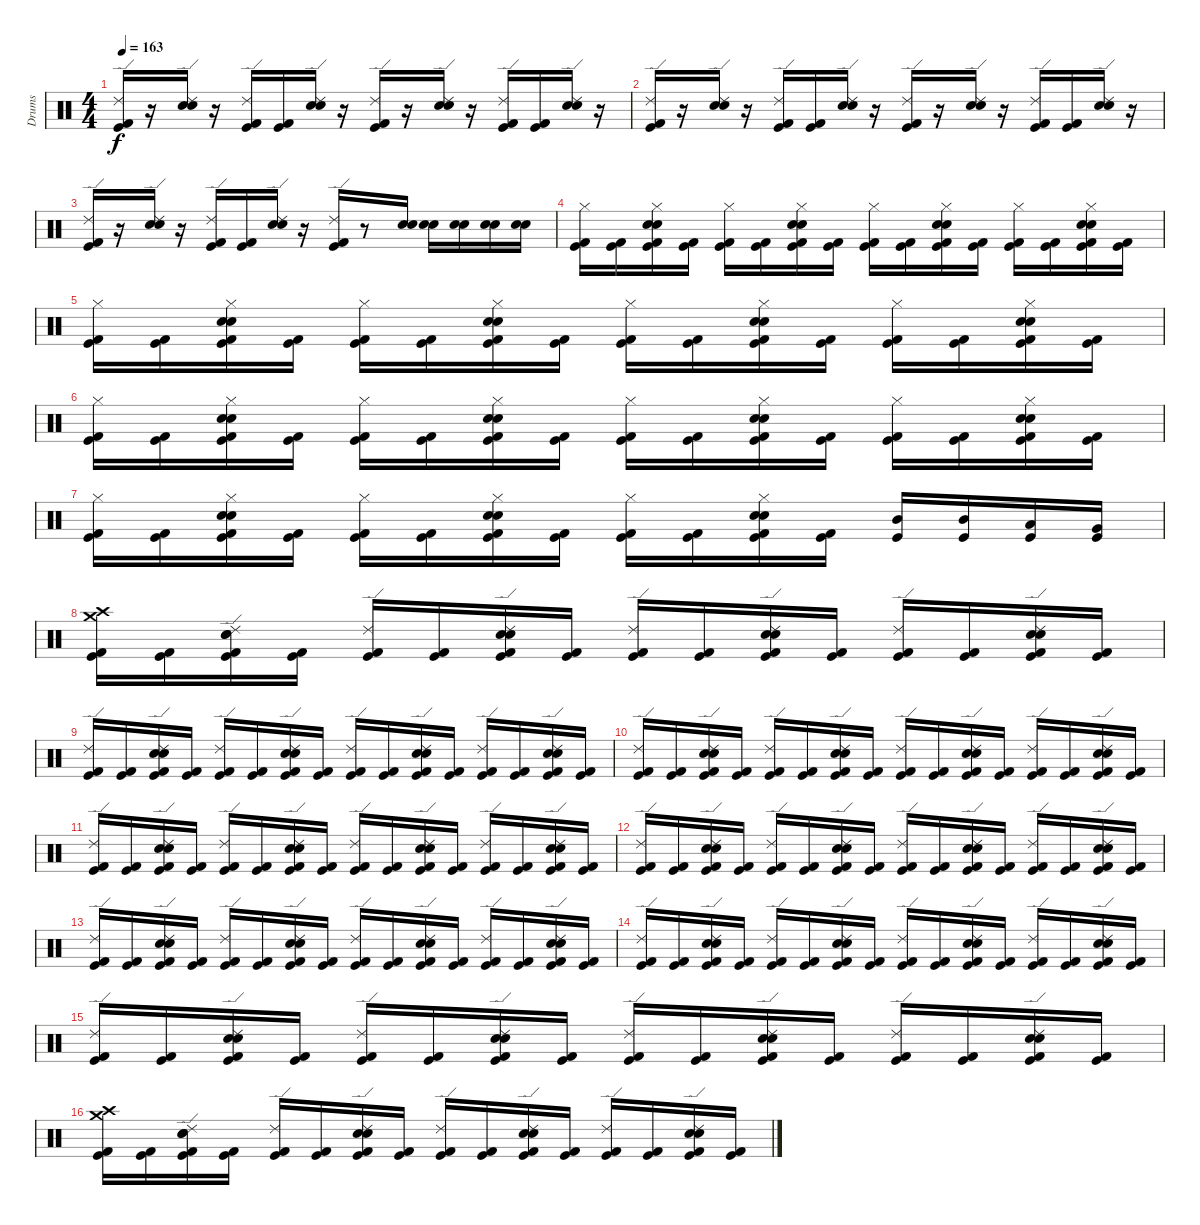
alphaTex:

\track ("Drums" "Drums") {instrument percussion}
\staff {score}
\articulation defaults
\ts (4 4)
\tempo 163
\clef neutral
\ks c
("Ride (edge) 2" "Kick (hit) 2" "Kick (hit)").16{dy f} r.16 ("Ride (edge) 2" "Electric Snare (hit)" "Snare (hit) 2").16 r.16 ("Ride (edge) 2" "Kick (hit)" "Kick (hit) 2").16 ("Kick (hit)" "Kick (hit) 2").16 ("Ride (edge) 2" "Electric Snare (hit)" "Snare (hit) 2").16 r.16 ("Ride (edge) 2" "Kick (hit)" "Kick (hit) 2").16 r.16 ("Ride (edge) 2" "Electric Snare (hit)" "Snare (hit) 2").16 r.16 ("Ride (edge) 2" "Kick (hit) 2" "Kick (hit)").16 ("Kick (hit) 2" "Kick (hit)").16 ("Ride (edge) 2" "Electric Snare (hit)" "Snare (hit) 2").16 r.16 |
("Ride (edge) 2" "Kick (hit) 2" "Kick (hit)").16 r.16 ("Ride (edge) 2" "Electric Snare (hit)" "Snare (hit) 2").16 r.16 ("Ride (edge) 2" "Kick (hit)" "Kick (hit) 2").16 ("Kick (hit)" "Kick (hit) 2").16 ("Ride (edge) 2" "Electric Snare (hit)" "Snare (hit) 2").16 r.16 ("Ride (edge) 2" "Kick (hit)" "Kick (hit) 2").16 r.16 ("Ride (edge) 2" "Electric Snare (hit)" "Snare (hit) 2").16 r.16 ("Ride (edge) 2" "Kick (hit) 2" "Kick (hit)").16 ("Kick (hit) 2" "Kick (hit)").16 ("Ride (edge) 2" "Electric Snare (hit)" "Snare (hit) 2").16 r.16 |
("Ride (edge) 2" "Kick (hit) 2" "Kick (hit)").16 r.16 ("Ride (edge) 2" "Electric Snare (hit)" "Snare (hit) 2").16 r.16 ("Ride (edge) 2" "Kick (hit)" "Kick (hit) 2").16 ("Kick (hit)" "Kick (hit) 2").16 ("Ride (edge) 2" "Electric Snare (hit)" "Snare (hit) 2").16 r.16 ("Ride (edge) 2" "Kick (hit)" "Kick (hit) 2").16 r.8 ("Electric Snare (hit)" "Snare (hit) 2").16 ("Snare (hit) 2" "Electric Snare (hit)").16 ("Electric Snare (hit)" "Snare (hit) 2").16 ("Electric Snare (hit)" "Snare (hit) 2").16 ("Electric Snare (hit)" "Snare (hit) 2").16 |
("Hi-Hat (closed)" "Kick (hit) 2" "Kick (hit)").16 ("Kick (hit) 2" "Kick (hit)").16 ("Electric Snare (hit)" "Snare (hit) 2" "Hi-Hat (closed)" "Kick (hit) 2" "Kick (hit)").16 ("Kick (hit) 2" "Kick (hit)").16 ("Hi-Hat (closed)" "Kick (hit) 2" "Kick (hit)").16 ("Kick (hit) 2" "Kick (hit)").16 ("Electric Snare (hit)" "Snare (hit) 2" "Hi-Hat (closed)" "Kick (hit) 2" "Kick (hit)").16 ("Kick (hit) 2" "Kick (hit)").16 ("Hi-Hat (closed)" "Kick (hit) 2" "Kick (hit)").16 ("Kick (hit) 2" "Kick (hit)").16 ("Electric Snare (hit)" "Snare (hit) 2" "Hi-Hat (closed)" "Kick (hit) 2" "Kick (hit)").16 ("Kick (hit) 2" "Kick (hit)").16 ("Hi-Hat (closed)" "Kick (hit) 2" "Kick (hit)").16 ("Kick (hit) 2" "Kick (hit)").16 ("Electric Snare (hit)" "Snare (hit) 2" "Hi-Hat (closed)" "Kick (hit) 2" "Kick (hit)").16 ("Kick (hit) 2" "Kick (hit)").16 |
("Hi-Hat (closed)" "Kick (hit) 2" "Kick (hit)").16 ("Kick (hit) 2" "Kick (hit)").16 ("Electric Snare (hit)" "Snare (hit) 2" "Hi-Hat (closed)" "Kick (hit) 2" "Kick (hit)").16 ("Kick (hit) 2" "Kick (hit)").16 ("Hi-Hat (closed)" "Kick (hit) 2" "Kick (hit)").16 ("Kick (hit) 2" "Kick (hit)").16 ("Electric Snare (hit)" "Snare (hit) 2" "Hi-Hat (closed)" "Kick (hit) 2" "Kick (hit)").16 ("Kick (hit) 2" "Kick (hit)").16 ("Hi-Hat (closed)" "Kick (hit) 2" "Kick (hit)").16 ("Kick (hit) 2" "Kick (hit)").16 ("Electric Snare (hit)" "Snare (hit) 2" "Hi-Hat (closed)" "Kick (hit) 2" "Kick (hit)").16 ("Kick (hit) 2" "Kick (hit)").16 ("Hi-Hat (closed)" "Kick (hit) 2" "Kick (hit)").16 ("Kick (hit) 2" "Kick (hit)").16 ("Electric Snare (hit)" "Snare (hit) 2" "Hi-Hat (closed)" "Kick (hit) 2" "Kick (hit)").16 ("Kick (hit) 2" "Kick (hit)").16 |
("Hi-Hat (closed)" "Kick (hit) 2" "Kick (hit)").16 ("Kick (hit) 2" "Kick (hit)").16 ("Electric Snare (hit)" "Snare (hit) 2" "Hi-Hat (closed)" "Kick (hit) 2" "Kick (hit)").16 ("Kick (hit) 2" "Kick (hit)").16 ("Hi-Hat (closed)" "Kick (hit) 2" "Kick (hit)").16 ("Kick (hit) 2" "Kick (hit)").16 ("Electric Snare (hit)" "Snare (hit) 2" "Hi-Hat (closed)" "Kick (hit) 2" "Kick (hit)").16 ("Kick (hit) 2" "Kick (hit)").16 ("Hi-Hat (closed)" "Kick (hit) 2" "Kick (hit)").16 ("Kick (hit) 2" "Kick (hit)").16 ("Electric Snare (hit)" "Snare (hit) 2" "Hi-Hat (closed)" "Kick (hit) 2" "Kick (hit)").16 ("Kick (hit) 2" "Kick (hit)").16 ("Hi-Hat (closed)" "Kick (hit) 2" "Kick (hit)").16 ("Kick (hit) 2" "Kick (hit)").16 ("Electric Snare (hit)" "Snare (hit) 2" "Hi-Hat (closed)" "Kick (hit) 2" "Kick (hit)").16 ("Kick (hit) 2" "Kick (hit)").16 |
("Hi-Hat (closed)" "Kick (hit) 2" "Kick (hit)").16 ("Kick (hit) 2" "Kick (hit)").16 ("Electric Snare (hit)" "Snare (hit) 2" "Hi-Hat (closed)" "Kick (hit) 2" "Kick (hit)").16 ("Kick (hit) 2" "Kick (hit)").16 ("Hi-Hat (closed)" "Kick (hit) 2" "Kick (hit)").16 ("Kick (hit) 2" "Kick (hit)").16 ("Electric Snare (hit)" "Snare (hit) 2" "Hi-Hat (closed)" "Kick (hit) 2" "Kick (hit)").16 ("Kick (hit) 2" "Kick (hit)").16 ("Hi-Hat (closed)" "Kick (hit) 2" "Kick (hit)").16 ("Kick (hit) 2" "Kick (hit)").16 ("Electric Snare (hit)" "Snare (hit) 2" "Hi-Hat (closed)" "Kick (hit) 2" "Kick (hit)").16 ("Kick (hit) 2" "Kick (hit)").16 ("Mid Tom (hit)" "Kick (hit)").16 ("Mid Tom (hit)" "Kick (hit)").16 ("Low Tom (hit)" "Kick (hit)").16 ("Very Low Tom (hit)" "Kick (hit)").16 |
("Crash high (hit)" "Crash medium (hit)" "Kick (hit) 2" "Kick (hit)").16 ("Kick (hit) 2" "Kick (hit)").16 ("Ride (edge) 2" "Electric Snare (hit)" "Snare (hit) 2" "Kick (hit) 2" "Kick (hit)").16 ("Kick (hit) 2" "Kick (hit)").16 ("Ride (edge) 2" "Kick (hit) 2" "Kick (hit)").16 ("Kick (hit) 2" "Kick (hit)").16 ("Ride (edge) 2" "Electric Snare (hit)" "Snare (hit) 2" "Kick (hit) 2" "Kick (hit)").16 ("Kick (hit) 2" "Kick (hit)").16 ("Ride (edge) 2" "Kick (hit) 2" "Kick (hit)").16 ("Kick (hit) 2" "Kick (hit)").16 ("Ride (edge) 2" "Electric Snare (hit)" "Snare (hit) 2" "Kick (hit) 2" "Kick (hit)").16 ("Kick (hit) 2" "Kick (hit)").16 ("Ride (edge) 2" "Kick (hit) 2" "Kick (hit)").16 ("Kick (hit) 2" "Kick (hit)").16 ("Ride (edge) 2" "Electric Snare (hit)" "Snare (hit) 2" "Kick (hit) 2" "Kick (hit)").16 ("Kick (hit) 2" "Kick (hit)").16 |
("Ride (edge) 2" "Kick (hit) 2" "Kick (hit)").16 ("Kick (hit) 2" "Kick (hit)").16 ("Ride (edge) 2" "Electric Snare (hit)" "Snare (hit) 2" "Kick (hit) 2" "Kick (hit)").16 ("Kick (hit) 2" "Kick (hit)").16 ("Ride (edge) 2" "Kick (hit) 2" "Kick (hit)").16 ("Kick (hit) 2" "Kick (hit)").16 ("Ride (edge) 2" "Electric Snare (hit)" "Snare (hit) 2" "Kick (hit) 2" "Kick (hit)").16 ("Kick (hit) 2" "Kick (hit)").16 ("Ride (edge) 2" "Kick (hit) 2" "Kick (hit)").16 ("Kick (hit) 2" "Kick (hit)").16 ("Ride (edge) 2" "Electric Snare (hit)" "Snare (hit) 2" "Kick (hit) 2" "Kick (hit)").16 ("Kick (hit) 2" "Kick (hit)").16 ("Ride (edge) 2" "Kick (hit) 2" "Kick (hit)").16 ("Kick (hit) 2" "Kick (hit)").16 ("Ride (edge) 2" "Electric Snare (hit)" "Snare (hit) 2" "Kick (hit) 2" "Kick (hit)").16 ("Kick (hit) 2" "Kick (hit)").16 |
("Ride (edge) 2" "Kick (hit) 2" "Kick (hit)").16 ("Kick (hit) 2" "Kick (hit)").16 ("Ride (edge) 2" "Electric Snare (hit)" "Snare (hit) 2" "Kick (hit) 2" "Kick (hit)").16 ("Kick (hit) 2" "Kick (hit)").16 ("Ride (edge) 2" "Kick (hit) 2" "Kick (hit)").16 ("Kick (hit) 2" "Kick (hit)").16 ("Ride (edge) 2" "Electric Snare (hit)" "Snare (hit) 2" "Kick (hit) 2" "Kick (hit)").16 ("Kick (hit) 2" "Kick (hit)").16 ("Ride (edge) 2" "Kick (hit) 2" "Kick (hit)").16 ("Kick (hit) 2" "Kick (hit)").16 ("Ride (edge) 2" "Electric Snare (hit)" "Snare (hit) 2" "Kick (hit) 2" "Kick (hit)").16 ("Kick (hit) 2" "Kick (hit)").16 ("Ride (edge) 2" "Kick (hit) 2" "Kick (hit)").16 ("Kick (hit) 2" "Kick (hit)").16 ("Ride (edge) 2" "Electric Snare (hit)" "Snare (hit) 2" "Kick (hit) 2" "Kick (hit)").16 ("Kick (hit) 2" "Kick (hit)").16 |
("Ride (edge) 2" "Kick (hit) 2" "Kick (hit)").16 ("Kick (hit) 2" "Kick (hit)").16 ("Ride (edge) 2" "Electric Snare (hit)" "Snare (hit) 2" "Kick (hit) 2" "Kick (hit)").16 ("Kick (hit) 2" "Kick (hit)").16 ("Ride (edge) 2" "Kick (hit) 2" "Kick (hit)").16 ("Kick (hit) 2" "Kick (hit)").16 ("Ride (edge) 2" "Electric Snare (hit)" "Snare (hit) 2" "Kick (hit) 2" "Kick (hit)").16 ("Kick (hit) 2" "Kick (hit)").16 ("Ride (edge) 2" "Kick (hit) 2" "Kick (hit)").16 ("Kick (hit) 2" "Kick (hit)").16 ("Ride (edge) 2" "Electric Snare (hit)" "Snare (hit) 2" "Kick (hit) 2" "Kick (hit)").16 ("Kick (hit) 2" "Kick (hit)").16 ("Ride (edge) 2" "Kick (hit) 2" "Kick (hit)").16 ("Kick (hit) 2" "Kick (hit)").16 ("Ride (edge) 2" "Electric Snare (hit)" "Snare (hit) 2" "Kick (hit) 2" "Kick (hit)").16 ("Kick (hit) 2" "Kick (hit)").16 |
("Ride (edge) 2" "Kick (hit) 2" "Kick (hit)").16 ("Kick (hit) 2" "Kick (hit)").16 ("Ride (edge) 2" "Electric Snare (hit)" "Snare (hit) 2" "Kick (hit) 2" "Kick (hit)").16 ("Kick (hit) 2" "Kick (hit)").16 ("Ride (edge) 2" "Kick (hit) 2" "Kick (hit)").16 ("Kick (hit) 2" "Kick (hit)").16 ("Ride (edge) 2" "Electric Snare (hit)" "Snare (hit) 2" "Kick (hit) 2" "Kick (hit)").16 ("Kick (hit) 2" "Kick (hit)").16 ("Ride (edge) 2" "Kick (hit) 2" "Kick (hit)").16 ("Kick (hit) 2" "Kick (hit)").16 ("Ride (edge) 2" "Electric Snare (hit)" "Snare (hit) 2" "Kick (hit) 2" "Kick (hit)").16 ("Kick (hit) 2" "Kick (hit)").16 ("Ride (edge) 2" "Kick (hit) 2" "Kick (hit)").16 ("Kick (hit) 2" "Kick (hit)").16 ("Ride (edge) 2" "Electric Snare (hit)" "Snare (hit) 2" "Kick (hit) 2" "Kick (hit)").16 ("Kick (hit) 2" "Kick (hit)").16 |
("Ride (edge) 2" "Kick (hit) 2" "Kick (hit)").16 ("Kick (hit) 2" "Kick (hit)").16 ("Ride (edge) 2" "Electric Snare (hit)" "Snare (hit) 2" "Kick (hit) 2" "Kick (hit)").16 ("Kick (hit) 2" "Kick (hit)").16 ("Ride (edge) 2" "Kick (hit) 2" "Kick (hit)").16 ("Kick (hit) 2" "Kick (hit)").16 ("Ride (edge) 2" "Electric Snare (hit)" "Snare (hit) 2" "Kick (hit) 2" "Kick (hit)").16 ("Kick (hit) 2" "Kick (hit)").16 ("Ride (edge) 2" "Kick (hit) 2" "Kick (hit)").16 ("Kick (hit) 2" "Kick (hit)").16 ("Ride (edge) 2" "Electric Snare (hit)" "Snare (hit) 2" "Kick (hit) 2" "Kick (hit)").16 ("Kick (hit) 2" "Kick (hit)").16 ("Ride (edge) 2" "Kick (hit) 2" "Kick (hit)").16 ("Kick (hit) 2" "Kick (hit)").16 ("Ride (edge) 2" "Electric Snare (hit)" "Snare (hit) 2" "Kick (hit) 2" "Kick (hit)").16 ("Kick (hit) 2" "Kick (hit)").16 |
("Ride (edge) 2" "Kick (hit) 2" "Kick (hit)").16 ("Kick (hit) 2" "Kick (hit)").16 ("Ride (edge) 2" "Electric Snare (hit)" "Snare (hit) 2" "Kick (hit) 2" "Kick (hit)").16 ("Kick (hit) 2" "Kick (hit)").16 ("Ride (edge) 2" "Kick (hit) 2" "Kick (hit)").16 ("Kick (hit) 2" "Kick (hit)").16 ("Ride (edge) 2" "Electric Snare (hit)" "Snare (hit) 2" "Kick (hit) 2" "Kick (hit)").16 ("Kick (hit) 2" "Kick (hit)").16 ("Ride (edge) 2" "Kick (hit) 2" "Kick (hit)").16 ("Kick (hit) 2" "Kick (hit)").16 ("Ride (edge) 2" "Electric Snare (hit)" "Snare (hit) 2" "Kick (hit) 2" "Kick (hit)").16 ("Kick (hit) 2" "Kick (hit)").16 ("Ride (edge) 2" "Kick (hit) 2" "Kick (hit)").16 ("Kick (hit) 2" "Kick (hit)").16 ("Ride (edge) 2" "Electric Snare (hit)" "Snare (hit) 2" "Kick (hit) 2" "Kick (hit)").16 ("Kick (hit) 2" "Kick (hit)").16 |
("Ride (edge) 2" "Kick (hit) 2" "Kick (hit)").16 ("Kick (hit) 2" "Kick (hit)").16 ("Ride (edge) 2" "Electric Snare (hit)" "Snare (hit) 2" "Kick (hit) 2" "Kick (hit)").16 ("Kick (hit) 2" "Kick (hit)").16 ("Ride (edge) 2" "Kick (hit) 2" "Kick (hit)").16 ("Kick (hit) 2" "Kick (hit)").16 ("Ride (edge) 2" "Electric Snare (hit)" "Snare (hit) 2" "Kick (hit) 2" "Kick (hit)").16 ("Kick (hit) 2" "Kick (hit)").16 ("Ride (edge) 2" "Kick (hit) 2" "Kick (hit)").16 ("Kick (hit) 2" "Kick (hit)").16 ("Ride (edge) 2" "Electric Snare (hit)" "Snare (hit) 2" "Kick (hit) 2" "Kick (hit)").16 ("Kick (hit) 2" "Kick (hit)").16 ("Ride (edge) 2" "Kick (hit) 2" "Kick (hit)").16 ("Kick (hit) 2" "Kick (hit)").16 ("Ride (edge) 2" "Electric Snare (hit)" "Snare (hit) 2" "Kick (hit) 2" "Kick (hit)").16 ("Kick (hit) 2" "Kick (hit)").16 |
("Crash high (hit)" "Crash medium (hit)" "Kick (hit) 2" "Kick (hit)").16 ("Kick (hit) 2" "Kick (hit)").16 ("Ride (edge) 2" "Electric Snare (hit)" "Snare (hit) 2" "Kick (hit) 2" "Kick (hit)").16 ("Kick (hit) 2" "Kick (hit)").16 ("Ride (edge) 2" "Kick (hit) 2" "Kick (hit)").16 ("Kick (hit) 2" "Kick (hit)").16 ("Ride (edge) 2" "Electric Snare (hit)" "Snare (hit) 2" "Kick (hit) 2" "Kick (hit)").16 ("Kick (hit) 2" "Kick (hit)").16 ("Ride (edge) 2" "Kick (hit) 2" "Kick (hit)").16 ("Kick (hit) 2" "Kick (hit)").16 ("Ride (edge) 2" "Electric Snare (hit)" "Snare (hit) 2" "Kick (hit) 2" "Kick (hit)").16 ("Kick (hit) 2" "Kick (hit)").16 ("Ride (edge) 2" "Kick (hit) 2" "Kick (hit)").16 ("Kick (hit) 2" "Kick (hit)").16 ("Ride (edge) 2" "Electric Snare (hit)" "Snare (hit) 2" "Kick (hit) 2" "Kick (hit)").16 ("Kick (hit) 2" "Kick (hit)").16
